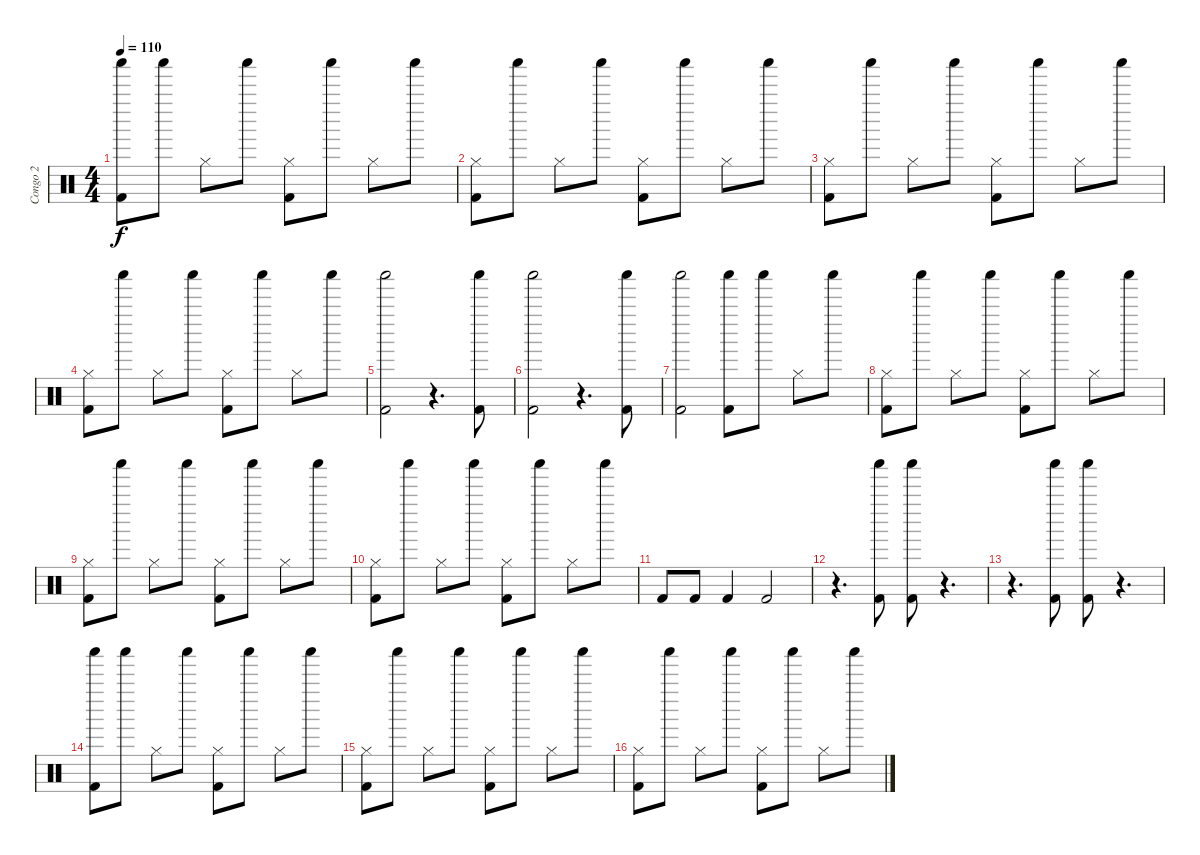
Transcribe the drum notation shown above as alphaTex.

\track ("Congo 2" "Congo 2") {instrument percussion}
\staff {score}
\articulation defaults
\ts (4 4)
\tempo 110
\clef neutral
\ks c
("Kick (hit) 2" "Shaker (hit)").8{dy f} "Shaker (hit)".8 "Hi-Hat (closed)".8 "Shaker (hit)".8 ("Kick (hit) 2" "Hi-Hat (closed)").8 "Shaker (hit)".8 "Hi-Hat (closed)".8 "Shaker (hit)".8 |
("Kick (hit) 2" "Hi-Hat (closed)").8 "Shaker (hit)".8 "Hi-Hat (closed)".8 "Shaker (hit)".8 ("Kick (hit) 2" "Hi-Hat (closed)").8 "Shaker (hit)".8 "Hi-Hat (closed)".8 "Shaker (hit)".8 |
("Kick (hit) 2" "Hi-Hat (closed)").8 "Shaker (hit)".8 "Hi-Hat (closed)".8 "Shaker (hit)".8 ("Kick (hit) 2" "Hi-Hat (closed)").8 "Shaker (hit)".8 "Hi-Hat (closed)".8 "Shaker (hit)".8 |
("Kick (hit) 2" "Hi-Hat (closed)").8 "Shaker (hit)".8 "Hi-Hat (closed)".8 "Shaker (hit)".8 ("Kick (hit) 2" "Hi-Hat (closed)").8 "Shaker (hit)".8 "Hi-Hat (closed)".8 "Shaker (hit)".8 |
("Kick (hit) 2" "Shaker (hit)").2 r.4{d} ("Kick (hit) 2" "Shaker (hit)").8 |
("Kick (hit) 2" "Shaker (hit)").2 r.4{d} ("Kick (hit) 2" "Shaker (hit)").8 |
("Kick (hit) 2" "Shaker (hit)").2 ("Kick (hit) 2" "Shaker (hit)").8 "Shaker (hit)".8 "Hi-Hat (closed)".8 "Shaker (hit)".8 |
("Kick (hit) 2" "Hi-Hat (closed)").8 "Shaker (hit)".8 "Hi-Hat (closed)".8 "Shaker (hit)".8 ("Kick (hit) 2" "Hi-Hat (closed)").8 "Shaker (hit)".8 "Hi-Hat (closed)".8 "Shaker (hit)".8 |
("Kick (hit) 2" "Hi-Hat (closed)").8 "Shaker (hit)".8 "Hi-Hat (closed)".8 "Shaker (hit)".8 ("Kick (hit) 2" "Hi-Hat (closed)").8 "Shaker (hit)".8 "Hi-Hat (closed)".8 "Shaker (hit)".8 |
("Kick (hit) 2" "Hi-Hat (closed)").8 "Shaker (hit)".8 "Hi-Hat (closed)".8 "Shaker (hit)".8 ("Kick (hit) 2" "Hi-Hat (closed)").8 "Shaker (hit)".8 "Hi-Hat (closed)".8 "Shaker (hit)".8 |
"Kick (hit) 2".8 "Kick (hit) 2".8 "Kick (hit) 2".4 "Kick (hit) 2".2 |
r.4{d} ("Kick (hit) 2" "Shaker (hit)").8 ("Kick (hit) 2" "Shaker (hit)").8 r.4{d} |
r.4{d} ("Kick (hit) 2" "Shaker (hit)").8 ("Kick (hit) 2" "Shaker (hit)").8 r.4{d} |
("Kick (hit) 2" "Shaker (hit)").8 "Shaker (hit)".8 "Hi-Hat (closed)".8 "Shaker (hit)".8 ("Kick (hit) 2" "Hi-Hat (closed)").8 "Shaker (hit)".8 "Hi-Hat (closed)".8 "Shaker (hit)".8 |
("Kick (hit) 2" "Hi-Hat (closed)").8 "Shaker (hit)".8 "Hi-Hat (closed)".8 "Shaker (hit)".8 ("Kick (hit) 2" "Hi-Hat (closed)").8 "Shaker (hit)".8 "Hi-Hat (closed)".8 "Shaker (hit)".8 |
("Kick (hit) 2" "Hi-Hat (closed)").8 "Shaker (hit)".8 "Hi-Hat (closed)".8 "Shaker (hit)".8 ("Kick (hit) 2" "Hi-Hat (closed)").8 "Shaker (hit)".8 "Hi-Hat (closed)".8 "Shaker (hit)".8
